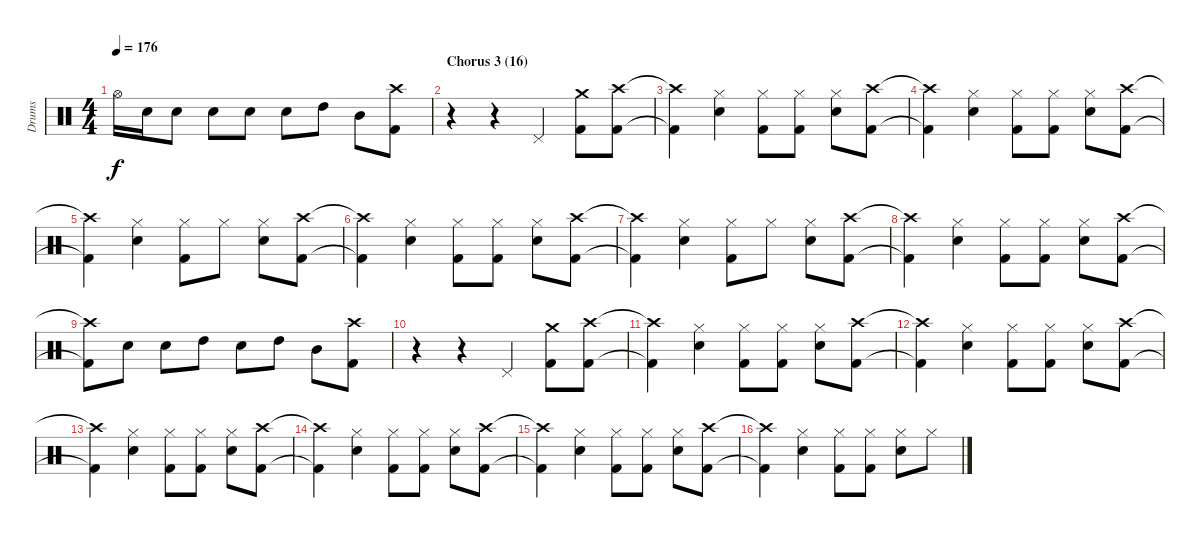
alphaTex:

\track ("Drums" "Drums") {instrument percussion}
\staff {score}
\articulation defaults
\ts (4 4)
\tempo 176
\clef neutral
\ks c "Hi-Hat (open)"{t}.16{dy f} "Snare (hit) 2".16 "Snare (hit) 2".8 "Snare (hit) 2".8 "Snare (hit) 2".8 "Snare (hit) 2".8 "High Tom (hit)".8 "Mid Tom (hit)".8
("Crash high (hit)" "Kick (hit) 2").8 |
\section ("" "Chorus 3 (16)")
r.4 r.4 "Pedal Hi-Hat (hit)".4 ("Crash medium (hit)" "Kick (hit) 2").8 ("Crash high (hit)" "Kick (hit) 2").8 |
("Crash high (hit)"{t} "Kick (hit) 2"{t}).4 ("Hi-Hat (closed)" "Snare (hit) 2").4 ("Hi-Hat (closed)" "Kick (hit) 2").8 ("Hi-Hat (closed)" "Kick (hit) 2").8 ("Hi-Hat (closed)" "Snare (hit) 2").8 ("Crash high (hit)" "Kick (hit) 2").8 |
("Crash high (hit)"{t} "Kick (hit) 2"{t}).4 ("Hi-Hat (closed)" "Snare (hit) 2").4 ("Hi-Hat (closed)" "Kick (hit) 2").8 ("Hi-Hat (closed)" "Kick (hit) 2").8 ("Hi-Hat (closed)" "Snare (hit) 2").8 ("Crash high (hit)" "Kick (hit) 2").8 |
("Crash high (hit)"{t} "Kick (hit) 2"{t}).4 ("Hi-Hat (closed)" "Snare (hit) 2").4 ("Hi-Hat (closed)" "Kick (hit) 2").8 "Hi-Hat (closed)".8 ("Hi-Hat (closed)" "Snare (hit) 2").8 ("Crash high (hit)" "Kick (hit) 2").8 |
("Crash high (hit)"{t} "Kick (hit) 2"{t}).4 ("Hi-Hat (closed)" "Snare (hit) 2").4 ("Hi-Hat (closed)" "Kick (hit) 2").8 ("Hi-Hat (closed)" "Kick (hit) 2").8 ("Hi-Hat (closed)" "Snare (hit) 2").8 ("Crash high (hit)" "Kick (hit) 2").8 |
("Crash high (hit)"{t} "Kick (hit) 2"{t}).4 ("Hi-Hat (closed)" "Snare (hit) 2").4 ("Hi-Hat (closed)" "Kick (hit) 2").8 "Hi-Hat (closed)".8 ("Hi-Hat (closed)" "Snare (hit) 2").8 ("Crash high (hit)" "Kick (hit) 2").8 |
("Crash high (hit)"{t} "Kick (hit) 2"{t}).4 ("Hi-Hat (closed)" "Snare (hit) 2").4 ("Hi-Hat (closed)" "Kick (hit) 2").8 ("Hi-Hat (closed)" "Kick (hit) 2").8 ("Hi-Hat (closed)" "Snare (hit) 2").8 ("Crash high (hit)" "Kick (hit) 2").8 |
("Crash high (hit)"{t} "Kick (hit) 2"{t}).8 "Snare (hit) 2".8 "Snare (hit) 2".8 "High Tom (hit)".8 "Snare (hit) 2".8 "High Tom (hit)".8 "Mid Tom (hit)".8 ("Crash high (hit)" "Kick (hit) 2").8 |
r.4 r.4 "Pedal Hi-Hat (hit)".4 ("Crash medium (hit)" "Kick (hit) 2").8 ("Crash high (hit)" "Kick (hit) 2").8 |
("Crash high (hit)"{t} "Kick (hit) 2"{t}).4 ("Hi-Hat (closed)" "Snare (hit) 2").4 ("Hi-Hat (closed)" "Kick (hit) 2").8 ("Hi-Hat (closed)" "Kick (hit) 2").8 ("Hi-Hat (closed)" "Snare (hit) 2").8 ("Crash high (hit)" "Kick (hit) 2").8 |
("Crash high (hit)"{t} "Kick (hit) 2"{t}).4 ("Hi-Hat (closed)" "Snare (hit) 2").4 ("Hi-Hat (closed)" "Kick (hit) 2").8 ("Hi-Hat (closed)" "Kick (hit) 2").8 ("Hi-Hat (closed)" "Snare (hit) 2").8 ("Crash high (hit)" "Kick (hit) 2").8 |
("Crash high (hit)"{t} "Kick (hit) 2"{t}).4 ("Hi-Hat (closed)" "Snare (hit) 2").4 ("Hi-Hat (closed)" "Kick (hit) 2").8 ("Hi-Hat (closed)" "Kick (hit) 2").8 ("Hi-Hat (closed)" "Snare (hit) 2").8 ("Crash high (hit)" "Kick (hit) 2").8 |
("Crash high (hit)"{t} "Kick (hit) 2"{t}).4 ("Hi-Hat (closed)" "Snare (hit) 2").4 ("Hi-Hat (closed)" "Kick (hit) 2").8 ("Hi-Hat (closed)" "Kick (hit) 2").8 ("Hi-Hat (closed)" "Snare (hit) 2").8 ("Crash high (hit)" "Kick (hit) 2").8 |
("Crash high (hit)"{t} "Kick (hit) 2"{t}).4 ("Hi-Hat (closed)" "Snare (hit) 2").4 ("Hi-Hat (closed)" "Kick (hit) 2").8 ("Hi-Hat (closed)" "Kick (hit) 2").8 ("Hi-Hat (closed)" "Snare (hit) 2").8 ("Crash high (hit)" "Kick (hit) 2").8 |
("Crash high (hit)"{t} "Kick (hit) 2"{t}).4 ("Hi-Hat (closed)" "Snare (hit) 2").4 ("Hi-Hat (closed)" "Kick (hit) 2").8 ("Hi-Hat (closed)" "Kick (hit) 2").8 ("Hi-Hat (closed)" "Snare (hit) 2").8 "Hi-Hat (closed)".8
